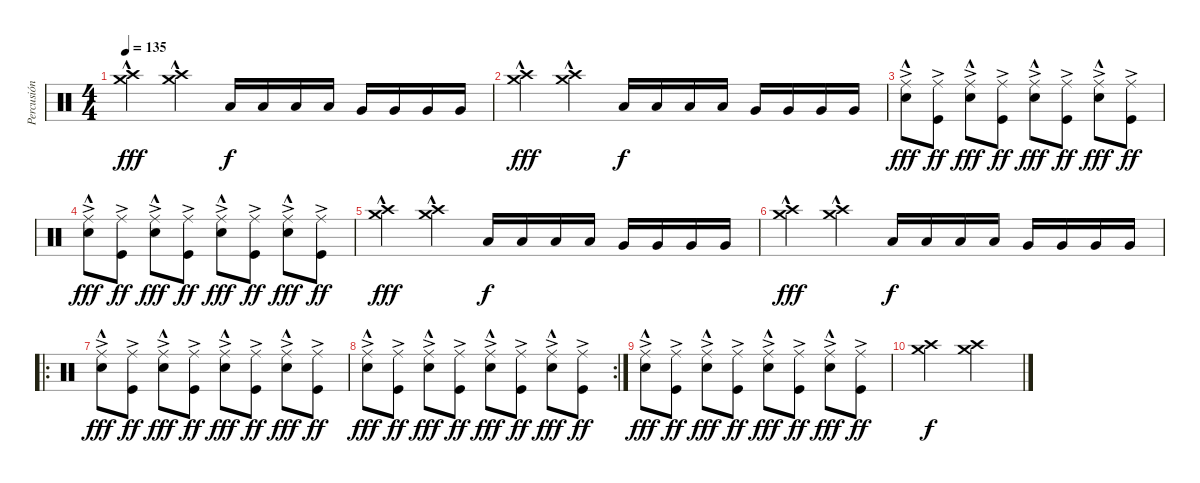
\track ("Percusión" "Percusión") {instrument percussion}
\staff {score}
\articulation defaults
\ts (4 4)
\tempo 135
\clef neutral
\ks c
("Crash high (hit)" "Crash medium (hit)"{hac}).4{dy fff} ("Crash high (hit)" "Crash medium (hit)"{hac}).4 "Low Floor Tom (hit)".16{dy f} "Low Floor Tom (hit)".16 "Low Floor Tom (hit)".16 "Low Floor Tom (hit)".16 "Very Low Tom (hit)".16 "Very Low Tom (hit)".16 "Very Low Tom (hit)".16 "Very Low Tom (hit)".16 |
("Crash high (hit)" "Crash medium (hit)"{hac}).4{dy fff} ("Crash high (hit)" "Crash medium (hit)"{hac}).4 "Low Floor Tom (hit)".16{dy f} "Low Floor Tom (hit)".16 "Low Floor Tom (hit)".16 "Low Floor Tom (hit)".16 "Very Low Tom (hit)".16 "Very Low Tom (hit)".16 "Very Low Tom (hit)".16 "Very Low Tom (hit)".16 |
("Ride (middle)"{ac} "Electric Snare (hit)"{hac}).8{dy fff} ("Ride (middle)"{ac} "Kick (hit)").8{dy ff} ("Ride (middle)"{ac} "Electric Snare (hit)"{hac}).8{dy fff} ("Ride (middle)"{ac} "Kick (hit)").8{dy ff} ("Ride (middle)"{ac} "Electric Snare (hit)"{hac}).8{dy fff} ("Ride (middle)"{ac} "Kick (hit)").8{dy ff} ("Ride (middle)"{ac} "Electric Snare (hit)"{hac}).8{dy fff} ("Ride (middle)"{ac} "Kick (hit)").8{dy ff} |
("Ride (middle)"{ac} "Electric Snare (hit)"{hac}).8{dy fff} ("Ride (middle)"{ac} "Kick (hit)").8{dy ff} ("Ride (middle)"{ac} "Electric Snare (hit)"{hac}).8{dy fff} ("Ride (middle)"{ac} "Kick (hit)").8{dy ff} ("Ride (middle)"{ac} "Electric Snare (hit)"{hac}).8{dy fff} ("Ride (middle)"{ac} "Kick (hit)").8{dy ff} ("Ride (middle)"{ac} "Electric Snare (hit)"{hac}).8{dy fff} ("Ride (middle)"{ac} "Kick (hit)").8{dy ff} |
("Crash high (hit)" "Crash medium (hit)"{hac}).4{dy fff} ("Crash high (hit)" "Crash medium (hit)"{hac}).4 "Low Floor Tom (hit)".16{dy f} "Low Floor Tom (hit)".16 "Low Floor Tom (hit)".16 "Low Floor Tom (hit)".16 "Very Low Tom (hit)".16 "Very Low Tom (hit)".16 "Very Low Tom (hit)".16 "Very Low Tom (hit)".16 |
("Crash high (hit)" "Crash medium (hit)"{hac}).4{dy fff} ("Crash high (hit)" "Crash medium (hit)"{hac}).4 "Low Floor Tom (hit)".16{dy f} "Low Floor Tom (hit)".16 "Low Floor Tom (hit)".16 "Low Floor Tom (hit)".16 "Very Low Tom (hit)".16 "Very Low Tom (hit)".16 "Very Low Tom (hit)".16 "Very Low Tom (hit)".16 |
\ro
("Ride (middle)"{ac} "Electric Snare (hit)"{hac}).8{dy fff} ("Ride (middle)"{ac} "Kick (hit)").8{dy ff} ("Ride (middle)"{ac} "Electric Snare (hit)"{hac}).8{dy fff} ("Ride (middle)"{ac} "Kick (hit)").8{dy ff} ("Ride (middle)"{ac} "Electric Snare (hit)"{hac}).8{dy fff} ("Ride (middle)"{ac} "Kick (hit)").8{dy ff} ("Ride (middle)"{ac} "Electric Snare (hit)"{hac}).8{dy fff} ("Ride (middle)"{ac} "Kick (hit)").8{dy ff} |
\rc 2
("Ride (middle)"{ac} "Electric Snare (hit)"{hac}).8{dy fff} ("Ride (middle)"{ac} "Kick (hit)").8{dy ff} ("Ride (middle)"{ac} "Electric Snare (hit)"{hac}).8{dy fff} ("Ride (middle)"{ac} "Kick (hit)").8{dy ff} ("Ride (middle)"{ac} "Electric Snare (hit)"{hac}).8{dy fff} ("Ride (middle)"{ac} "Kick (hit)").8{dy ff} ("Ride (middle)"{ac} "Electric Snare (hit)"{hac}).8{dy fff} ("Ride (middle)"{ac} "Kick (hit)").8{dy ff} |
("Ride (middle)"{ac} "Electric Snare (hit)"{hac}).8{dy fff} ("Ride (middle)"{ac} "Kick (hit)").8{dy ff} ("Ride (middle)"{ac} "Electric Snare (hit)"{hac}).8{dy fff} ("Ride (middle)"{ac} "Kick (hit)").8{dy ff} ("Ride (middle)"{ac} "Electric Snare (hit)"{hac}).8{dy fff} ("Ride (middle)"{ac} "Kick (hit)").8{dy ff} ("Ride (middle)"{ac} "Electric Snare (hit)"{hac}).8{dy fff} ("Ride (middle)"{ac} "Kick (hit)").8{dy ff} |
("Crash high (hit)" "Crash medium (hit)").2{dy f} ("Crash high (hit)" "Crash medium (hit)").2
